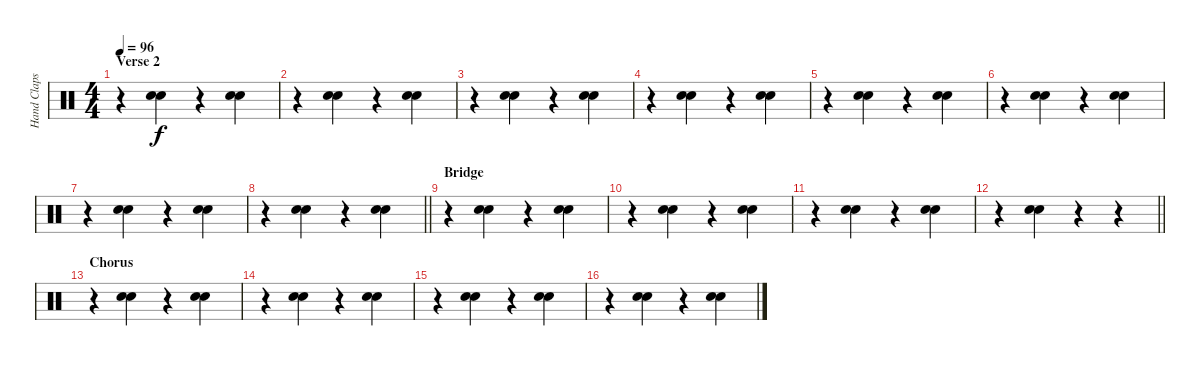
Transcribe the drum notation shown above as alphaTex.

\track ("Hand Claps" "Hand Claps") {instrument percussion}
\staff {score}
\articulation defaults
\ts (4 4)
\section ("" "Verse 2")
\tempo 96
\clef neutral
\ks c
r.4{dy f} ("Hand Clap (hit)" "Hand Clap (hit)").4 r.4 ("Hand Clap (hit)" "Hand Clap (hit)").4 |
r.4 ("Hand Clap (hit)" "Hand Clap (hit)").4 r.4 ("Hand Clap (hit)" "Hand Clap (hit)").4 |
r.4 ("Hand Clap (hit)" "Hand Clap (hit)").4 r.4 ("Hand Clap (hit)" "Hand Clap (hit)").4 |
r.4 ("Hand Clap (hit)" "Hand Clap (hit)").4 r.4 ("Hand Clap (hit)" "Hand Clap (hit)").4 |
r.4 ("Hand Clap (hit)" "Hand Clap (hit)").4 r.4 ("Hand Clap (hit)" "Hand Clap (hit)").4 |
r.4 ("Hand Clap (hit)" "Hand Clap (hit)").4 r.4 ("Hand Clap (hit)" "Hand Clap (hit)").4 |
r.4 ("Hand Clap (hit)" "Hand Clap (hit)").4 r.4 ("Hand Clap (hit)" "Hand Clap (hit)").4 |
\barLineRight lightlight
r.4 ("Hand Clap (hit)" "Hand Clap (hit)").4 r.4 ("Hand Clap (hit)" "Hand Clap (hit)").4 |
\section ("" "Bridge")
r.4 ("Hand Clap (hit)" "Hand Clap (hit)").4 r.4 ("Hand Clap (hit)" "Hand Clap (hit)").4 |
r.4 ("Hand Clap (hit)" "Hand Clap (hit)").4 r.4 ("Hand Clap (hit)" "Hand Clap (hit)").4 |
r.4 ("Hand Clap (hit)" "Hand Clap (hit)").4 r.4 ("Hand Clap (hit)" "Hand Clap (hit)").4 |
\barLineRight lightlight
r.4 ("Hand Clap (hit)" "Hand Clap (hit)").4 r.4 r.4 |
\section ("" "Chorus")
r.4 ("Hand Clap (hit)" "Hand Clap (hit)").4 r.4 ("Hand Clap (hit)" "Hand Clap (hit)").4 |
r.4 ("Hand Clap (hit)" "Hand Clap (hit)").4 r.4 ("Hand Clap (hit)" "Hand Clap (hit)").4 |
r.4 ("Hand Clap (hit)" "Hand Clap (hit)").4 r.4 ("Hand Clap (hit)" "Hand Clap (hit)").4 |
r.4 ("Hand Clap (hit)" "Hand Clap (hit)").4 r.4 ("Hand Clap (hit)" "Hand Clap (hit)").4
